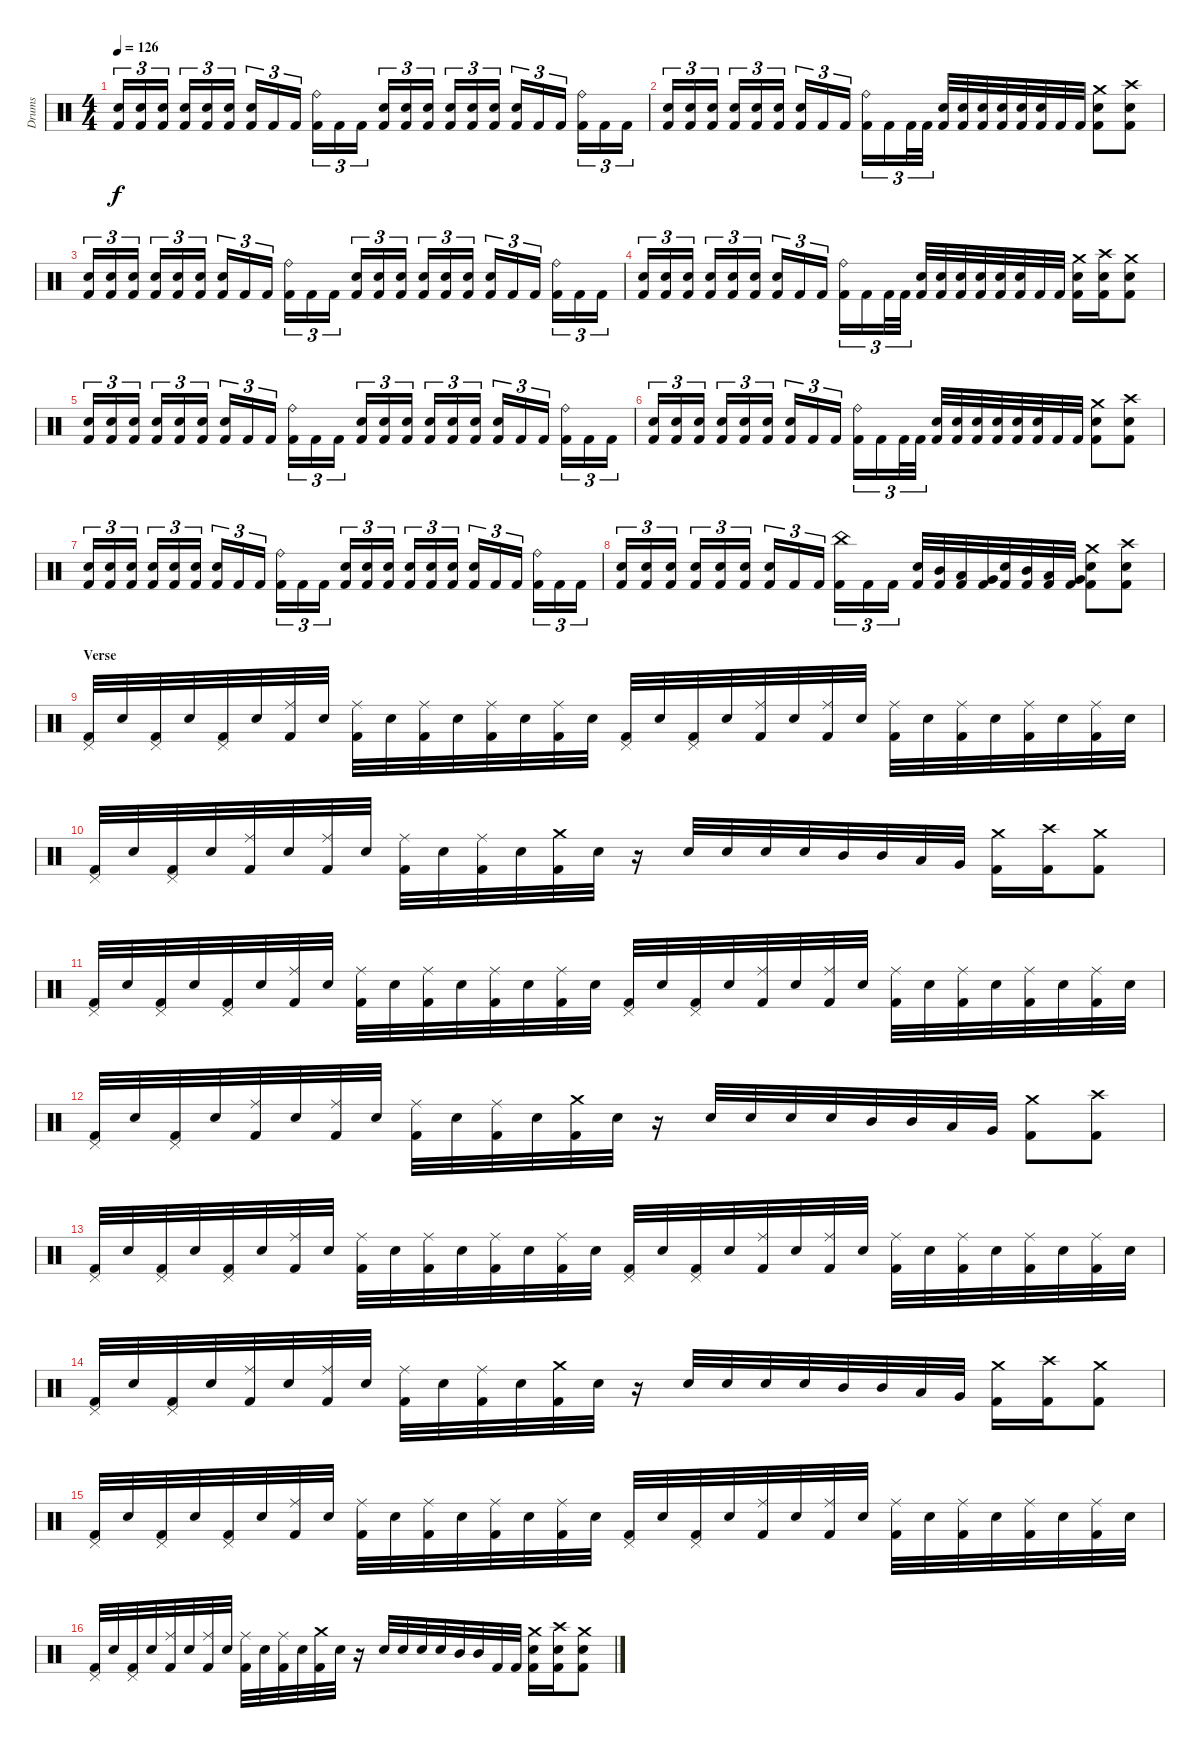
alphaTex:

\track ("Drums" "Drums") {instrument percussion}
\staff {score}
\articulation defaults
\ts (4 4)
\section ("" "")
\tempo 126
\clef neutral
\ks c
("Electric Snare (hit)" "Kick (hit) 2").16{tu (3 2) dy f} ("Electric Snare (hit)" "Kick (hit) 2").16{tu (3 2)} ("Electric Snare (hit)" "Kick (hit) 2").16{tu (3 2)} ("Electric Snare (hit)" "Kick (hit) 2").16{tu (3 2)} ("Electric Snare (hit)" "Kick (hit) 2").16{tu (3 2)} ("Electric Snare (hit)" "Kick (hit) 2").16{tu (3 2)} ("Electric Snare (hit)" "Kick (hit) 2").16{tu (3 2)} "Kick (hit) 2".16{tu (3 2)} "Kick (hit) 2".16{tu (3 2)} ("Ride (bell)" "Kick (hit) 2").16{tu (3 2)} "Kick (hit) 2".16{tu (3 2)} "Kick (hit) 2".16{tu (3 2)} ("Electric Snare (hit)" "Kick (hit) 2").16{tu (3 2)} ("Electric Snare (hit)" "Kick (hit) 2").16{tu (3 2)} ("Electric Snare (hit)" "Kick (hit) 2").16{tu (3 2)} ("Electric Snare (hit)" "Kick (hit) 2").16{tu (3 2)} ("Electric Snare (hit)" "Kick (hit) 2").16{tu (3 2)} ("Electric Snare (hit)" "Kick (hit) 2").16{tu (3 2)} ("Electric Snare (hit)" "Kick (hit) 2").16{tu (3 2)} "Kick (hit) 2".16{tu (3 2)} "Kick (hit) 2".16{tu (3 2)} ("Ride (bell)" "Kick (hit) 2").16{tu (3 2)} "Kick (hit) 2".16{tu (3 2)} "Kick (hit) 2".16{tu (3 2)} |
("Electric Snare (hit)" "Kick (hit) 2").16{tu (3 2)} ("Electric Snare (hit)" "Kick (hit) 2").16{tu (3 2)} ("Electric Snare (hit)" "Kick (hit) 2").16{tu (3 2)} ("Electric Snare (hit)" "Kick (hit) 2").16{tu (3 2)} ("Electric Snare (hit)" "Kick (hit) 2").16{tu (3 2)} ("Electric Snare (hit)" "Kick (hit) 2").16{tu (3 2)} ("Electric Snare (hit)" "Kick (hit) 2").16{tu (3 2)} "Kick (hit) 2".16{tu (3 2)} "Kick (hit) 2".16{tu (3 2)} ("Ride (bell)" "Kick (hit) 2").16{tu (3 2)} "Kick (hit) 2".16{tu (3 2)} "Kick (hit) 2".32{tu (3 2)} "Kick (hit) 2".32{tu (3 2)} ("Electric Snare (hit)" "Kick (hit) 2").32 ("Electric Snare (hit)" "Kick (hit) 2").32 ("Electric Snare (hit)" "Kick (hit) 2").32 ("Electric Snare (hit)" "Kick (hit) 2").32 ("Electric Snare (hit)" "Kick (hit) 2").32 ("Electric Snare (hit)" "Kick (hit) 2").32 "Kick (hit) 2".32 "Kick (hit) 2".32 ("Crash medium (hit)" "Electric Snare (hit)" "Kick (hit) 2").8 ("Crash high (hit)" "Electric Snare (hit)" "Kick (hit) 2").8 |
("Electric Snare (hit)" "Kick (hit) 2").16{tu (3 2)} ("Electric Snare (hit)" "Kick (hit) 2").16{tu (3 2)} ("Electric Snare (hit)" "Kick (hit) 2").16{tu (3 2)} ("Electric Snare (hit)" "Kick (hit) 2").16{tu (3 2)} ("Electric Snare (hit)" "Kick (hit) 2").16{tu (3 2)} ("Electric Snare (hit)" "Kick (hit) 2").16{tu (3 2)} ("Electric Snare (hit)" "Kick (hit) 2").16{tu (3 2)} "Kick (hit) 2".16{tu (3 2)} "Kick (hit) 2".16{tu (3 2)} ("Ride (bell)" "Kick (hit) 2").16{tu (3 2)} "Kick (hit) 2".16{tu (3 2)} "Kick (hit) 2".16{tu (3 2)} ("Electric Snare (hit)" "Kick (hit) 2").16{tu (3 2)} ("Electric Snare (hit)" "Kick (hit) 2").16{tu (3 2)} ("Electric Snare (hit)" "Kick (hit) 2").16{tu (3 2)} ("Electric Snare (hit)" "Kick (hit) 2").16{tu (3 2)} ("Electric Snare (hit)" "Kick (hit) 2").16{tu (3 2)} ("Electric Snare (hit)" "Kick (hit) 2").16{tu (3 2)} ("Electric Snare (hit)" "Kick (hit) 2").16{tu (3 2)} "Kick (hit) 2".16{tu (3 2)} "Kick (hit) 2".16{tu (3 2)} ("Ride (bell)" "Kick (hit) 2").16{tu (3 2)} "Kick (hit) 2".16{tu (3 2)} "Kick (hit) 2".16{tu (3 2)} |
("Electric Snare (hit)" "Kick (hit) 2").16{tu (3 2)} ("Electric Snare (hit)" "Kick (hit) 2").16{tu (3 2)} ("Electric Snare (hit)" "Kick (hit) 2").16{tu (3 2)} ("Electric Snare (hit)" "Kick (hit) 2").16{tu (3 2)} ("Electric Snare (hit)" "Kick (hit) 2").16{tu (3 2)} ("Electric Snare (hit)" "Kick (hit) 2").16{tu (3 2)} ("Electric Snare (hit)" "Kick (hit) 2").16{tu (3 2)} "Kick (hit) 2".16{tu (3 2)} "Kick (hit) 2".16{tu (3 2)} ("Ride (bell)" "Kick (hit) 2").16{tu (3 2)} "Kick (hit) 2".16{tu (3 2)} "Kick (hit) 2".32{tu (3 2)} "Kick (hit) 2".32{tu (3 2)} ("Electric Snare (hit)" "Kick (hit) 2").32 ("Electric Snare (hit)" "Kick (hit) 2").32 ("Electric Snare (hit)" "Kick (hit) 2").32 ("Electric Snare (hit)" "Kick (hit) 2").32 ("Electric Snare (hit)" "Kick (hit) 2").32 ("Electric Snare (hit)" "Kick (hit) 2").32 "Kick (hit) 2".32 "Kick (hit) 2".32 ("Crash medium (hit)" "Electric Snare (hit)" "Kick (hit) 2").16 ("Crash high (hit)" "Electric Snare (hit)" "Kick (hit) 2").16 ("Crash medium (hit)" "Electric Snare (hit)" "Kick (hit) 2").8 |
("Electric Snare (hit)" "Kick (hit) 2").16{tu (3 2)} ("Electric Snare (hit)" "Kick (hit) 2").16{tu (3 2)} ("Electric Snare (hit)" "Kick (hit) 2").16{tu (3 2)} ("Electric Snare (hit)" "Kick (hit) 2").16{tu (3 2)} ("Electric Snare (hit)" "Kick (hit) 2").16{tu (3 2)} ("Electric Snare (hit)" "Kick (hit) 2").16{tu (3 2)} ("Electric Snare (hit)" "Kick (hit) 2").16{tu (3 2)} "Kick (hit) 2".16{tu (3 2)} "Kick (hit) 2".16{tu (3 2)} ("Ride (bell)" "Kick (hit) 2").16{tu (3 2)} "Kick (hit) 2".16{tu (3 2)} "Kick (hit) 2".16{tu (3 2)} ("Electric Snare (hit)" "Kick (hit) 2").16{tu (3 2)} ("Electric Snare (hit)" "Kick (hit) 2").16{tu (3 2)} ("Electric Snare (hit)" "Kick (hit) 2").16{tu (3 2)} ("Electric Snare (hit)" "Kick (hit) 2").16{tu (3 2)} ("Electric Snare (hit)" "Kick (hit) 2").16{tu (3 2)} ("Electric Snare (hit)" "Kick (hit) 2").16{tu (3 2)} ("Electric Snare (hit)" "Kick (hit) 2").16{tu (3 2)} "Kick (hit) 2".16{tu (3 2)} "Kick (hit) 2".16{tu (3 2)} ("Ride (bell)" "Kick (hit) 2").16{tu (3 2)} "Kick (hit) 2".16{tu (3 2)} "Kick (hit) 2".16{tu (3 2)} |
("Electric Snare (hit)" "Kick (hit) 2").16{tu (3 2)} ("Electric Snare (hit)" "Kick (hit) 2").16{tu (3 2)} ("Electric Snare (hit)" "Kick (hit) 2").16{tu (3 2)} ("Electric Snare (hit)" "Kick (hit) 2").16{tu (3 2)} ("Electric Snare (hit)" "Kick (hit) 2").16{tu (3 2)} ("Electric Snare (hit)" "Kick (hit) 2").16{tu (3 2)} ("Electric Snare (hit)" "Kick (hit) 2").16{tu (3 2)} "Kick (hit) 2".16{tu (3 2)} "Kick (hit) 2".16{tu (3 2)} ("Ride (bell)" "Kick (hit) 2").16{tu (3 2)} "Kick (hit) 2".16{tu (3 2)} "Kick (hit) 2".32{tu (3 2)} "Kick (hit) 2".32{tu (3 2)} ("Electric Snare (hit)" "Kick (hit) 2").32 ("Electric Snare (hit)" "Kick (hit) 2").32 ("Electric Snare (hit)" "Kick (hit) 2").32 ("Electric Snare (hit)" "Kick (hit) 2").32 ("Electric Snare (hit)" "Kick (hit) 2").32 ("Electric Snare (hit)" "Kick (hit) 2").32 "Kick (hit) 2".32 "Kick (hit) 2".32 ("Crash medium (hit)" "Electric Snare (hit)" "Kick (hit) 2").8 ("Crash high (hit)" "Electric Snare (hit)" "Kick (hit) 2").8 |
("Electric Snare (hit)" "Kick (hit) 2").16{tu (3 2)} ("Electric Snare (hit)" "Kick (hit) 2").16{tu (3 2)} ("Electric Snare (hit)" "Kick (hit) 2").16{tu (3 2)} ("Electric Snare (hit)" "Kick (hit) 2").16{tu (3 2)} ("Electric Snare (hit)" "Kick (hit) 2").16{tu (3 2)} ("Electric Snare (hit)" "Kick (hit) 2").16{tu (3 2)} ("Electric Snare (hit)" "Kick (hit) 2").16{tu (3 2)} "Kick (hit) 2".16{tu (3 2)} "Kick (hit) 2".16{tu (3 2)} ("Ride (bell)" "Kick (hit) 2").16{tu (3 2)} "Kick (hit) 2".16{tu (3 2)} "Kick (hit) 2".16{tu (3 2)} ("Electric Snare (hit)" "Kick (hit) 2").16{tu (3 2)} ("Electric Snare (hit)" "Kick (hit) 2").16{tu (3 2)} ("Electric Snare (hit)" "Kick (hit) 2").16{tu (3 2)} ("Electric Snare (hit)" "Kick (hit) 2").16{tu (3 2)} ("Electric Snare (hit)" "Kick (hit) 2").16{tu (3 2)} ("Electric Snare (hit)" "Kick (hit) 2").16{tu (3 2)} ("Electric Snare (hit)" "Kick (hit) 2").16{tu (3 2)} "Kick (hit) 2".16{tu (3 2)} "Kick (hit) 2".16{tu (3 2)} ("Ride (bell)" "Kick (hit) 2").16{tu (3 2)} "Kick (hit) 2".16{tu (3 2)} "Kick (hit) 2".16{tu (3 2)} |
("Electric Snare (hit)" "Kick (hit) 2").16{tu (3 2)} ("Electric Snare (hit)" "Kick (hit) 2").16{tu (3 2)} ("Electric Snare (hit)" "Kick (hit) 2").16{tu (3 2)} ("Electric Snare (hit)" "Kick (hit) 2").16{tu (3 2)} ("Electric Snare (hit)" "Kick (hit) 2").16{tu (3 2)} ("Electric Snare (hit)" "Kick (hit) 2").16{tu (3 2)} ("Electric Snare (hit)" "Kick (hit) 2").16{tu (3 2)} "Kick (hit) 2".16{tu (3 2)} "Kick (hit) 2".16{tu (3 2)} ("China (hit)" "Kick (hit) 2").16{tu (3 2)} "Kick (hit) 2".16{tu (3 2)} "Kick (hit) 2".16{tu (3 2)} ("Electric Snare (hit)" "Kick (hit) 2").32 ("Mid Tom (hit)" "Kick (hit) 2").32 ("Low Tom (hit)" "Kick (hit) 2").32 ("Very Low Tom (hit)" "Kick (hit) 2").32 ("Electric Snare (hit)" "Kick (hit) 2").32 ("Mid Tom (hit)" "Kick (hit) 2").32 ("Low Tom (hit)" "Kick (hit) 2").32 ("Very Low Tom (hit)" "Kick (hit) 2").32 ("Crash medium (hit)" "Electric Snare (hit)" "Kick (hit) 2").8 ("Crash high (hit)" "Electric Snare (hit)" "Kick (hit) 2").8 |
\section ("" "Verse")
("Pedal Hi-Hat (hit)" "Kick (hit) 2").32 "Electric Snare (hit)".32 ("Pedal Hi-Hat (hit)" "Kick (hit) 2").32 "Electric Snare (hit)".32 ("Pedal Hi-Hat (hit)" "Kick (hit) 2").32 "Electric Snare (hit)".32 ("Ride (middle)" "Kick (hit) 2").32 "Electric Snare (hit)".32 ("Ride (middle)" "Kick (hit) 2").32 "Electric Snare (hit)".32 ("Ride (middle)" "Kick (hit) 2").32 "Electric Snare (hit)".32 ("Ride (middle)" "Kick (hit) 2").32 "Electric Snare (hit)".32 ("Ride (middle)" "Kick (hit) 2").32 "Electric Snare (hit)".32 ("Pedal Hi-Hat (hit)" "Kick (hit) 2").32 "Electric Snare (hit)".32 ("Pedal Hi-Hat (hit)" "Kick (hit) 2").32 "Electric Snare (hit)".32 ("Ride (middle)" "Kick (hit) 2").32 "Electric Snare (hit)".32 ("Ride (middle)" "Kick (hit) 2").32 "Electric Snare (hit)".32 ("Ride (middle)" "Kick (hit) 2").32 "Electric Snare (hit)".32 ("Ride (middle)" "Kick (hit) 2").32 "Electric Snare (hit)".32 ("Ride (middle)" "Kick (hit) 2").32 "Electric Snare (hit)".32 ("Ride (middle)" "Kick (hit) 2").32 "Electric Snare (hit)".32 |
("Pedal Hi-Hat (hit)" "Kick (hit) 2").32 "Electric Snare (hit)".32 ("Pedal Hi-Hat (hit)" "Kick (hit) 2").32 "Electric Snare (hit)".32 ("Ride (middle)" "Kick (hit) 2").32 "Electric Snare (hit)".32 ("Ride (middle)" "Kick (hit) 2").32 "Electric Snare (hit)".32 ("Ride (middle)" "Kick (hit) 2").32 "Electric Snare (hit)".32 ("Ride (middle)" "Kick (hit) 2").32 "Electric Snare (hit)".32 ("Crash medium (hit)" "Kick (hit) 2").32 "Electric Snare (hit)".32 r.16 "Electric Snare (hit)".32 "Electric Snare (hit)".32 "Electric Snare (hit)".32 "Electric Snare (hit)".32 "Mid Tom (hit)".32 "Mid Tom (hit)".32 "Low Tom (hit)".32 "Very Low Tom (hit)".32 ("Crash medium (hit)" "Kick (hit) 2").16 ("Crash high (hit)" "Kick (hit) 2").16 ("Crash medium (hit)" "Kick (hit) 2").8 |
("Pedal Hi-Hat (hit)" "Kick (hit) 2").32 "Electric Snare (hit)".32 ("Pedal Hi-Hat (hit)" "Kick (hit) 2").32 "Electric Snare (hit)".32 ("Pedal Hi-Hat (hit)" "Kick (hit) 2").32 "Electric Snare (hit)".32 ("Ride (middle)" "Kick (hit) 2").32 "Electric Snare (hit)".32 ("Ride (middle)" "Kick (hit) 2").32 "Electric Snare (hit)".32 ("Ride (middle)" "Kick (hit) 2").32 "Electric Snare (hit)".32 ("Ride (middle)" "Kick (hit) 2").32 "Electric Snare (hit)".32 ("Ride (middle)" "Kick (hit) 2").32 "Electric Snare (hit)".32 ("Pedal Hi-Hat (hit)" "Kick (hit) 2").32 "Electric Snare (hit)".32 ("Pedal Hi-Hat (hit)" "Kick (hit) 2").32 "Electric Snare (hit)".32 ("Ride (middle)" "Kick (hit) 2").32 "Electric Snare (hit)".32 ("Ride (middle)" "Kick (hit) 2").32 "Electric Snare (hit)".32 ("Ride (middle)" "Kick (hit) 2").32 "Electric Snare (hit)".32 ("Ride (middle)" "Kick (hit) 2").32 "Electric Snare (hit)".32 ("Ride (middle)" "Kick (hit) 2").32 "Electric Snare (hit)".32 ("Ride (middle)" "Kick (hit) 2").32 "Electric Snare (hit)".32 |
("Pedal Hi-Hat (hit)" "Kick (hit) 2").32 "Electric Snare (hit)".32 ("Pedal Hi-Hat (hit)" "Kick (hit) 2").32 "Electric Snare (hit)".32 ("Ride (middle)" "Kick (hit) 2").32 "Electric Snare (hit)".32 ("Ride (middle)" "Kick (hit) 2").32 "Electric Snare (hit)".32 ("Ride (middle)" "Kick (hit) 2").32 "Electric Snare (hit)".32 ("Ride (middle)" "Kick (hit) 2").32 "Electric Snare (hit)".32 ("Crash medium (hit)" "Kick (hit) 2").32 "Electric Snare (hit)".32 r.16 "Electric Snare (hit)".32 "Electric Snare (hit)".32 "Electric Snare (hit)".32 "Electric Snare (hit)".32 "Mid Tom (hit)".32 "Mid Tom (hit)".32 "Low Tom (hit)".32 "Very Low Tom (hit)".32 ("Crash medium (hit)" "Kick (hit) 2").8 ("Crash high (hit)" "Kick (hit) 2").8 |
("Pedal Hi-Hat (hit)" "Kick (hit) 2").32 "Electric Snare (hit)".32 ("Pedal Hi-Hat (hit)" "Kick (hit) 2").32 "Electric Snare (hit)".32 ("Pedal Hi-Hat (hit)" "Kick (hit) 2").32 "Electric Snare (hit)".32 ("Ride (middle)" "Kick (hit) 2").32 "Electric Snare (hit)".32 ("Ride (middle)" "Kick (hit) 2").32 "Electric Snare (hit)".32 ("Ride (middle)" "Kick (hit) 2").32 "Electric Snare (hit)".32 ("Ride (middle)" "Kick (hit) 2").32 "Electric Snare (hit)".32 ("Ride (middle)" "Kick (hit) 2").32 "Electric Snare (hit)".32 ("Pedal Hi-Hat (hit)" "Kick (hit) 2").32 "Electric Snare (hit)".32 ("Pedal Hi-Hat (hit)" "Kick (hit) 2").32 "Electric Snare (hit)".32 ("Ride (middle)" "Kick (hit) 2").32 "Electric Snare (hit)".32 ("Ride (middle)" "Kick (hit) 2").32 "Electric Snare (hit)".32 ("Ride (middle)" "Kick (hit) 2").32 "Electric Snare (hit)".32 ("Ride (middle)" "Kick (hit) 2").32 "Electric Snare (hit)".32 ("Ride (middle)" "Kick (hit) 2").32 "Electric Snare (hit)".32 ("Ride (middle)" "Kick (hit) 2").32 "Electric Snare (hit)".32 |
("Pedal Hi-Hat (hit)" "Kick (hit) 2").32 "Electric Snare (hit)".32 ("Pedal Hi-Hat (hit)" "Kick (hit) 2").32 "Electric Snare (hit)".32 ("Ride (middle)" "Kick (hit) 2").32 "Electric Snare (hit)".32 ("Ride (middle)" "Kick (hit) 2").32 "Electric Snare (hit)".32 ("Ride (middle)" "Kick (hit) 2").32 "Electric Snare (hit)".32 ("Ride (middle)" "Kick (hit) 2").32 "Electric Snare (hit)".32 ("Crash medium (hit)" "Kick (hit) 2").32 "Electric Snare (hit)".32 r.16 "Electric Snare (hit)".32 "Electric Snare (hit)".32 "Electric Snare (hit)".32 "Electric Snare (hit)".32 "Mid Tom (hit)".32 "Mid Tom (hit)".32 "Low Tom (hit)".32 "Very Low Tom (hit)".32 ("Crash medium (hit)" "Kick (hit) 2").16 ("Crash high (hit)" "Kick (hit) 2").16 ("Crash medium (hit)" "Kick (hit) 2").8 |
("Pedal Hi-Hat (hit)" "Kick (hit) 2").32 "Electric Snare (hit)".32 ("Pedal Hi-Hat (hit)" "Kick (hit) 2").32 "Electric Snare (hit)".32 ("Pedal Hi-Hat (hit)" "Kick (hit) 2").32 "Electric Snare (hit)".32 ("Ride (middle)" "Kick (hit) 2").32 "Electric Snare (hit)".32 ("Ride (middle)" "Kick (hit) 2").32 "Electric Snare (hit)".32 ("Ride (middle)" "Kick (hit) 2").32 "Electric Snare (hit)".32 ("Ride (middle)" "Kick (hit) 2").32 "Electric Snare (hit)".32 ("Ride (middle)" "Kick (hit) 2").32 "Electric Snare (hit)".32 ("Pedal Hi-Hat (hit)" "Kick (hit) 2").32 "Electric Snare (hit)".32 ("Pedal Hi-Hat (hit)" "Kick (hit) 2").32 "Electric Snare (hit)".32 ("Ride (middle)" "Kick (hit) 2").32 "Electric Snare (hit)".32 ("Ride (middle)" "Kick (hit) 2").32 "Electric Snare (hit)".32 ("Ride (middle)" "Kick (hit) 2").32 "Electric Snare (hit)".32 ("Ride (middle)" "Kick (hit) 2").32 "Electric Snare (hit)".32 ("Ride (middle)" "Kick (hit) 2").32 "Electric Snare (hit)".32 ("Ride (middle)" "Kick (hit) 2").32 "Electric Snare (hit)".32 |
("Pedal Hi-Hat (hit)" "Kick (hit) 2").32 "Electric Snare (hit)".32 ("Pedal Hi-Hat (hit)" "Kick (hit) 2").32 "Electric Snare (hit)".32 ("Ride (middle)" "Kick (hit) 2").32 "Electric Snare (hit)".32 ("Ride (middle)" "Kick (hit) 2").32 "Electric Snare (hit)".32 ("Ride (middle)" "Kick (hit) 2").32 "Electric Snare (hit)".32 ("Ride (middle)" "Kick (hit) 2").32 "Electric Snare (hit)".32 ("Crash medium (hit)" "Kick (hit) 2").32 "Electric Snare (hit)".32 r.16 "Electric Snare (hit)".32 "Electric Snare (hit)".32 "Electric Snare (hit)".32 "Electric Snare (hit)".32 "Mid Tom (hit)".32 "Mid Tom (hit)".32 "Kick (hit) 2".32 "Kick (hit) 2".32 ("Crash medium (hit)" "Electric Snare (hit)" "Kick (hit) 2").16 ("Crash high (hit)" "Electric Snare (hit)" "Kick (hit) 2").16 ("Crash medium (hit)" "Electric Snare (hit)" "Kick (hit) 2").8
